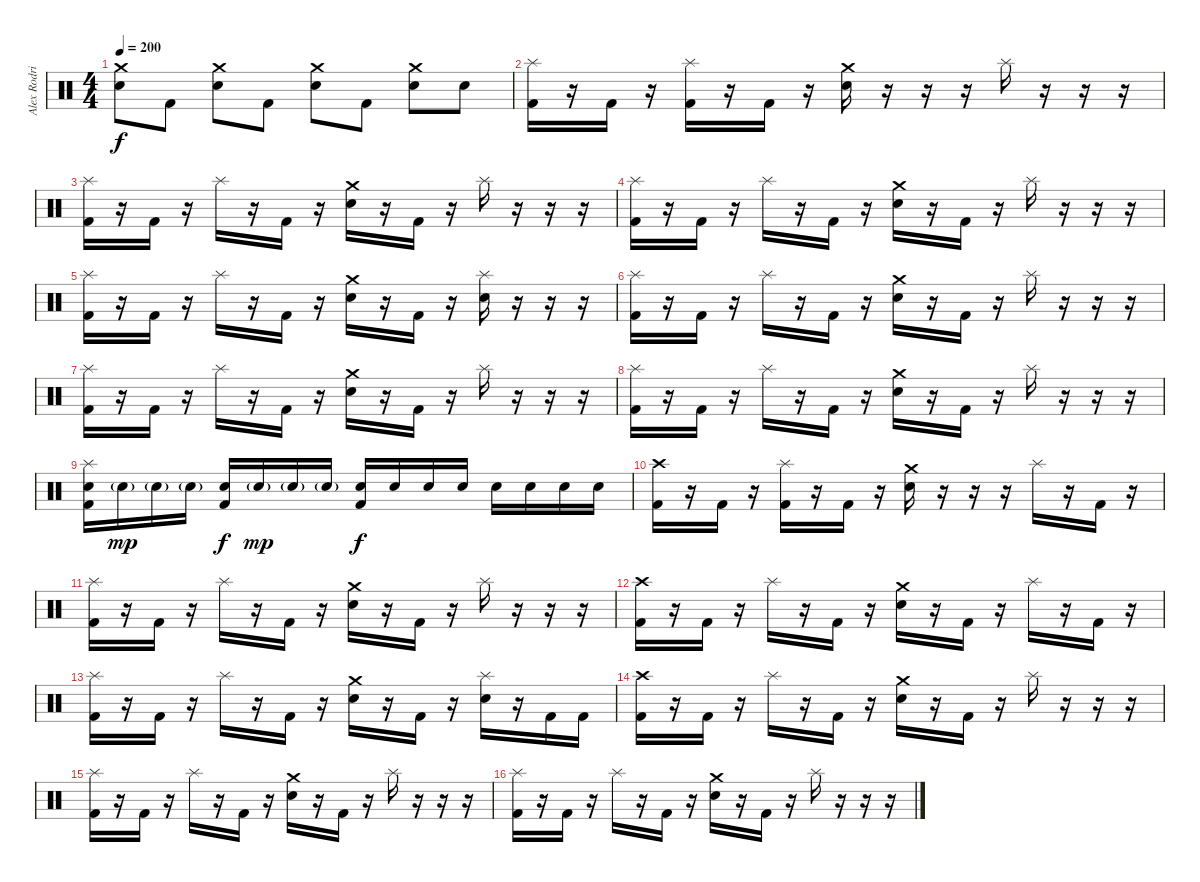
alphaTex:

\track ("Alex Rodriguez" "Alex Rodri") {instrument percussion}
\staff {score}
\articulation defaults
\ts (4 4)
\tempo 200
\clef neutral
\ks c
("Crash medium (hit)" "Electric Snare (hit)").8{dy f} "Kick (hit) 2".8 ("Crash medium (hit)" "Electric Snare (hit)").8 "Kick (hit) 2".8 ("Crash medium (hit)" "Electric Snare (hit)").8 "Kick (hit) 2".8 ("Crash medium (hit)" "Electric Snare (hit)").8 "Electric Snare (hit)".8 |
("Splash (hit)" "Kick (hit) 2").16 r.16 "Kick (hit) 2".16 r.16 ("Splash (hit)" "Kick (hit) 2").16 r.16 "Kick (hit) 2".16 r.16 ("Crash medium (hit)" "Electric Snare (hit)").16 r.16 r.16 r.16 "Splash (hit)".16 r.16 r.16 r.16 |
("Splash (hit)" "Kick (hit) 2").16 r.16 "Kick (hit) 2".16 r.16 "Splash (hit)".16 r.16 "Kick (hit) 2".16 r.16 ("Crash medium (hit)" "Electric Snare (hit)").16 r.16 "Kick (hit) 2".16 r.16 "Splash (hit)".16 r.16 r.16 r.16 |
("Splash (hit)" "Kick (hit) 2").16 r.16 "Kick (hit) 2".16 r.16 "Splash (hit)".16 r.16 "Kick (hit) 2".16 r.16 ("Crash medium (hit)" "Electric Snare (hit)").16 r.16 "Kick (hit) 2".16 r.16 "Splash (hit)".16 r.16 r.16 r.16 |
("Splash (hit)" "Kick (hit) 2").16 r.16 "Kick (hit) 2".16 r.16 "Splash (hit)".16 r.16 "Kick (hit) 2".16 r.16 ("Crash medium (hit)" "Electric Snare (hit)").16 r.16 "Kick (hit) 2".16 r.16 ("Splash (hit)" "Electric Snare (hit)").16 r.16 r.16 r.16 |
("Splash (hit)" "Kick (hit) 2").16 r.16 "Kick (hit) 2".16 r.16 "Splash (hit)".16 r.16 "Kick (hit) 2".16 r.16 ("Crash medium (hit)" "Electric Snare (hit)").16 r.16 "Kick (hit) 2".16 r.16 "Splash (hit)".16 r.16 r.16 r.16 |
("Splash (hit)" "Kick (hit) 2").16 r.16 "Kick (hit) 2".16 r.16 "Splash (hit)".16 r.16 "Kick (hit) 2".16 r.16 ("Crash medium (hit)" "Electric Snare (hit)").16 r.16 "Kick (hit) 2".16 r.16 "Splash (hit)".16 r.16 r.16 r.16 |
("Splash (hit)" "Kick (hit) 2").16 r.16 "Kick (hit) 2".16 r.16 "Splash (hit)".16 r.16 "Kick (hit) 2".16 r.16 ("Crash medium (hit)" "Electric Snare (hit)").16 r.16 "Kick (hit) 2".16 r.16 "Splash (hit)".16 r.16 r.16 r.16 |
("Splash (hit)" "Electric Snare (hit)" "Kick (hit) 2").16 "Electric Snare (hit)"{g}.16{dy mp} "Electric Snare (hit)"{g}.16 "Electric Snare (hit)"{g}.16 ("Electric Snare (hit)" "Kick (hit) 2").16{dy f} "Electric Snare (hit)"{g}.16{dy mp} "Electric Snare (hit)"{g}.16 "Electric Snare (hit)"{g}.16 ("Electric Snare (hit)" "Kick (hit) 2").16{dy f} "Electric Snare (hit)".16 "Electric Snare (hit)".16 "Electric Snare (hit)".16 "Electric Snare (hit)".16 "Electric Snare (hit)".16 "Electric Snare (hit)".16 "Electric Snare (hit)".16 |
("Crash high (hit)" "Kick (hit) 2").16 r.16 "Kick (hit) 2".16 r.16 ("Splash (hit)" "Kick (hit) 2").16 r.16 "Kick (hit) 2".16 r.16 ("Crash medium (hit)" "Electric Snare (hit)").16 r.16 r.16 r.16 "Splash (hit)".16 r.16 "Kick (hit) 2".16 r.16 |
("Splash (hit)" "Kick (hit) 2").16 r.16 "Kick (hit) 2".16 r.16 "Splash (hit)".16 r.16 "Kick (hit) 2".16 r.16 ("Crash medium (hit)" "Electric Snare (hit)").16 r.16 "Kick (hit) 2".16 r.16 "Splash (hit)".16 r.16 r.16 r.16 |
("Crash high (hit)" "Kick (hit) 2").16 r.16 "Kick (hit) 2".16 r.16 "Splash (hit)".16 r.16 "Kick (hit) 2".16 r.16 ("Crash medium (hit)" "Electric Snare (hit)").16 r.16 "Kick (hit) 2".16 r.16 "Splash (hit)".16 r.16 "Kick (hit) 2".16 r.16 |
("Splash (hit)" "Kick (hit) 2").16 r.16 "Kick (hit) 2".16 r.16 "Splash (hit)".16 r.16 "Kick (hit) 2".16 r.16 ("Crash medium (hit)" "Electric Snare (hit)").16 r.16 "Kick (hit) 2".16 r.16 ("Splash (hit)" "Electric Snare (hit)").16 r.16 "Kick (hit) 2".16 "Kick (hit) 2".16 |
("Crash high (hit)" "Kick (hit) 2").16 r.16 "Kick (hit) 2".16 r.16 "Splash (hit)".16 r.16 "Kick (hit) 2".16 r.16 ("Crash medium (hit)" "Electric Snare (hit)").16 r.16 "Kick (hit) 2".16 r.16 "Splash (hit)".16 r.16 r.16 r.16 |
("Splash (hit)" "Kick (hit) 2").16 r.16 "Kick (hit) 2".16 r.16 "Splash (hit)".16 r.16 "Kick (hit) 2".16 r.16 ("Crash medium (hit)" "Electric Snare (hit)").16 r.16 "Kick (hit) 2".16 r.16 "Splash (hit)".16 r.16 r.16 r.16 |
("Splash (hit)" "Kick (hit) 2").16 r.16 "Kick (hit) 2".16 r.16 "Splash (hit)".16 r.16 "Kick (hit) 2".16 r.16 ("Crash medium (hit)" "Electric Snare (hit)").16 r.16 "Kick (hit) 2".16 r.16 "Splash (hit)".16 r.16 r.16 r.16
